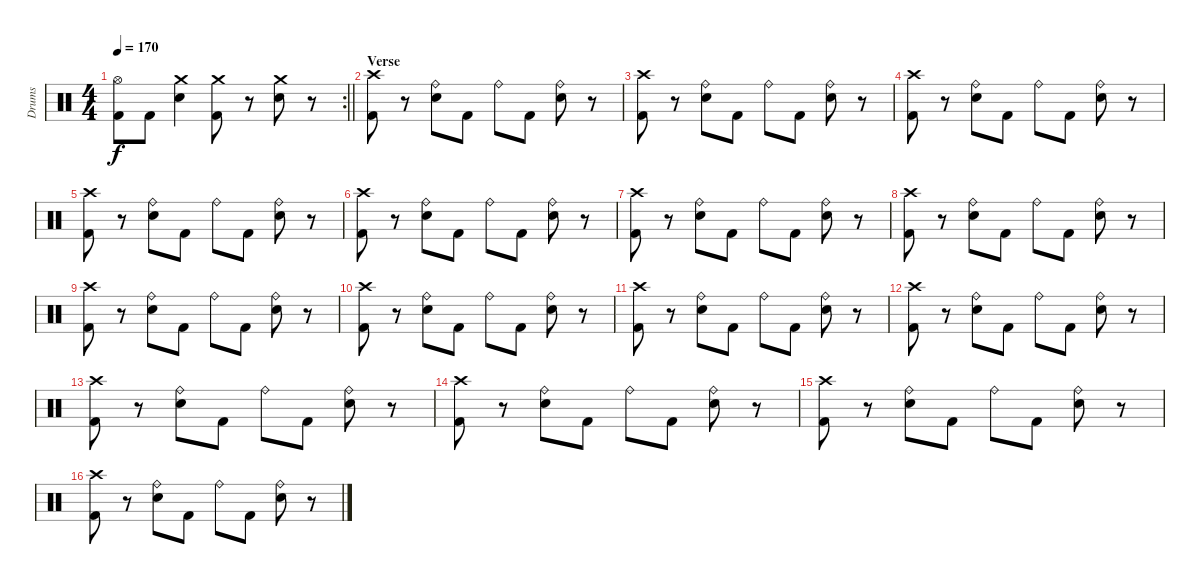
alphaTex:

\track ("Drums" "Drums") {instrument percussion}
\staff {score}
\articulation defaults
\rc 2
\ts (4 4)
\tempo 170
\clef neutral
\barLineRight lightlight
\ks c
("Hi-Hat (open)" "Kick (hit) 2").8{dy f} "Kick (hit) 2".8 ("Crash medium (hit)" "Snare (hit) 2").4 ("Crash medium (hit)" "Kick (hit) 2").8 r.8 ("Crash medium (hit)" "Snare (hit) 2").8 r.8 |
\section ("" "Verse")
("Crash high (hit)" "Kick (hit) 2").8 r.8 ("Ride (bell)" "Snare (hit) 2").8 "Kick (hit) 2".8 "Ride (bell)".8 "Kick (hit) 2".8 ("Ride (bell)" "Snare (hit) 2").8 r.8 |
("Crash high (hit)" "Kick (hit) 2").8 r.8 ("Ride (bell)" "Snare (hit) 2").8 "Kick (hit) 2".8 "Ride (bell)".8 "Kick (hit) 2".8 ("Ride (bell)" "Snare (hit) 2").8 r.8 |
("Crash high (hit)" "Kick (hit) 2").8 r.8 ("Ride (bell)" "Snare (hit) 2").8 "Kick (hit) 2".8 "Ride (bell)".8 "Kick (hit) 2".8 ("Ride (bell)" "Snare (hit) 2").8 r.8 |
("Crash high (hit)" "Kick (hit) 2").8 r.8 ("Ride (bell)" "Snare (hit) 2").8 "Kick (hit) 2".8 "Ride (bell)".8 "Kick (hit) 2".8 ("Ride (bell)" "Snare (hit) 2").8 r.8 |
("Crash high (hit)" "Kick (hit) 2").8 r.8 ("Ride (bell)" "Snare (hit) 2").8 "Kick (hit) 2".8 "Ride (bell)".8 "Kick (hit) 2".8 ("Ride (bell)" "Snare (hit) 2").8 r.8 |
("Crash high (hit)" "Kick (hit) 2").8 r.8 ("Ride (bell)" "Snare (hit) 2").8 "Kick (hit) 2".8 "Ride (bell)".8 "Kick (hit) 2".8 ("Ride (bell)" "Snare (hit) 2").8 r.8 |
("Crash high (hit)" "Kick (hit) 2").8 r.8 ("Ride (bell)" "Snare (hit) 2").8 "Kick (hit) 2".8 "Ride (bell)".8 "Kick (hit) 2".8 ("Ride (bell)" "Snare (hit) 2").8 r.8 |
("Crash high (hit)" "Kick (hit) 2").8 r.8 ("Ride (bell)" "Snare (hit) 2").8 "Kick (hit) 2".8 "Ride (bell)".8 "Kick (hit) 2".8 ("Ride (bell)" "Snare (hit) 2").8 r.8 |
("Crash high (hit)" "Kick (hit) 2").8 r.8 ("Ride (bell)" "Snare (hit) 2").8 "Kick (hit) 2".8 "Ride (bell)".8 "Kick (hit) 2".8 ("Ride (bell)" "Snare (hit) 2").8 r.8 |
("Crash high (hit)" "Kick (hit) 2").8 r.8 ("Ride (bell)" "Snare (hit) 2").8 "Kick (hit) 2".8 "Ride (bell)".8 "Kick (hit) 2".8 ("Ride (bell)" "Snare (hit) 2").8 r.8 |
("Crash high (hit)" "Kick (hit) 2").8 r.8 ("Ride (bell)" "Snare (hit) 2").8 "Kick (hit) 2".8 "Ride (bell)".8 "Kick (hit) 2".8 ("Ride (bell)" "Snare (hit) 2").8 r.8 |
("Crash high (hit)" "Kick (hit) 2").8 r.8 ("Ride (bell)" "Snare (hit) 2").8 "Kick (hit) 2".8 "Ride (bell)".8 "Kick (hit) 2".8 ("Ride (bell)" "Snare (hit) 2").8 r.8 |
("Crash high (hit)" "Kick (hit) 2").8 r.8 ("Ride (bell)" "Snare (hit) 2").8 "Kick (hit) 2".8 "Ride (bell)".8 "Kick (hit) 2".8 ("Ride (bell)" "Snare (hit) 2").8 r.8 |
("Crash high (hit)" "Kick (hit) 2").8 r.8 ("Ride (bell)" "Snare (hit) 2").8 "Kick (hit) 2".8 "Ride (bell)".8 "Kick (hit) 2".8 ("Ride (bell)" "Snare (hit) 2").8 r.8 |
("Crash high (hit)" "Kick (hit) 2").8 r.8 ("Ride (bell)" "Snare (hit) 2").8 "Kick (hit) 2".8 "Ride (bell)".8 "Kick (hit) 2".8 ("Ride (bell)" "Snare (hit) 2").8 r.8
